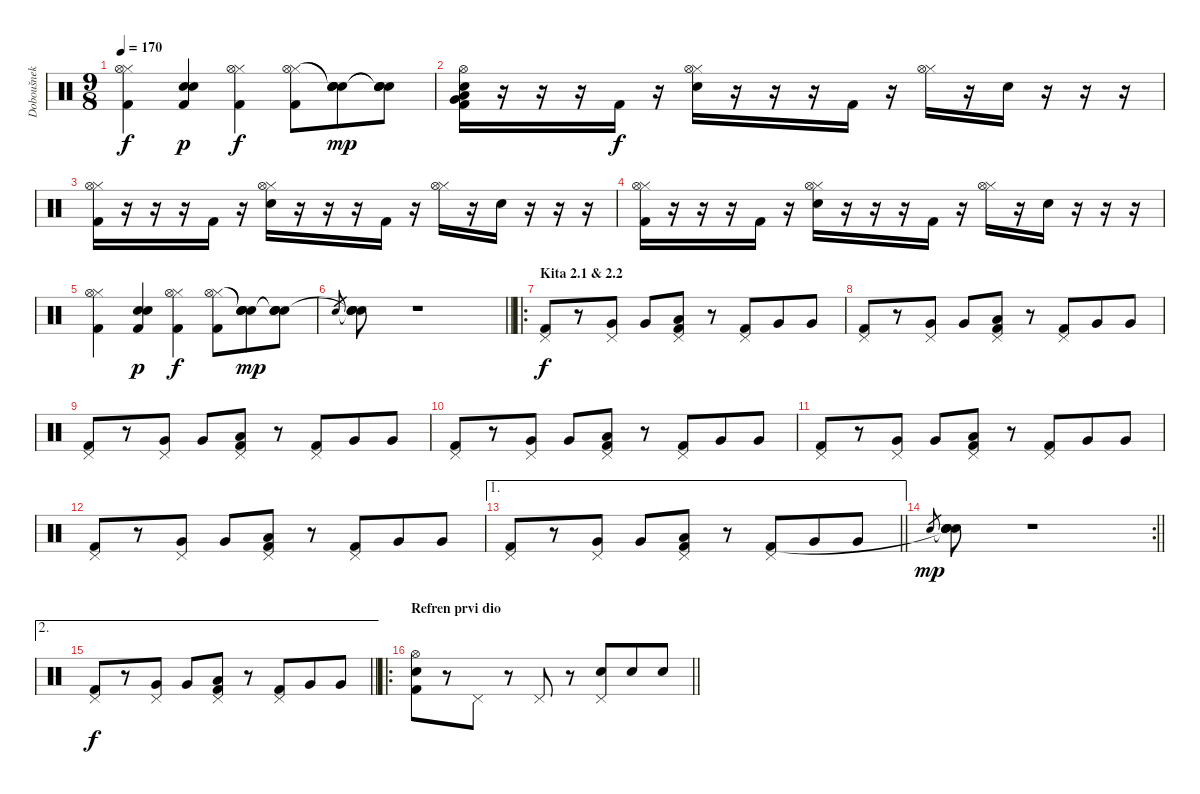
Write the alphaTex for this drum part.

\track ("Doboušnek" "Doboušnek") {instrument percussion}
\staff {score}
\articulation defaults
\ts (9 8)
\tempo 170
\clef neutral
\ks c
("Hi-Hat (closed)" "Hi-Hat (open)" "Kick (hit) 2").4{dy f} ("Snare (hit) 2" "Electric Snare (hit)" "Kick (hit) 2").4{dy p} ("Hi-Hat (closed)" "Hi-Hat (open)" "Kick (hit) 2").4{dy f} ("Hi-Hat (closed)" "Hi-Hat (open)" "Kick (hit) 2").8 ("Snare (hit)"{t} "Snare (hit)"{t} "Electric Snare (hit)" "Snare (hit) 2").8{dy mp} ("Snare (hit)"{t} "Snare (hit)"{t} "Electric Snare (hit)" "Snare (hit) 2").8 |
("Hi-Hat (open)" "Electric Snare (hit)" "Low Floor Tom (hit)" "Very Low Tom (hit)" "Kick (hit) 2").16 r.16 r.16 r.16 "Kick (hit) 2".16{dy f} r.16 ("Hi-Hat (closed)" "Hi-Hat (open)" "Electric Snare (hit)").16 r.16 r.16 r.16 "Kick (hit) 2".16 r.16 ("Hi-Hat (closed)" "Hi-Hat (open)").16 r.16 "Electric Snare (hit)".16 r.16 r.16 r.16 |
("Hi-Hat (closed)" "Hi-Hat (open)" "Kick (hit) 2").16 r.16 r.16 r.16 "Kick (hit) 2".16 r.16 ("Hi-Hat (closed)" "Hi-Hat (open)" "Electric Snare (hit)").16 r.16 r.16 r.16 "Kick (hit) 2".16 r.16 ("Hi-Hat (closed)" "Hi-Hat (open)").16 r.16 "Electric Snare (hit)".16 r.16 r.16 r.16 |
("Hi-Hat (closed)" "Hi-Hat (open)" "Kick (hit) 2").16 r.16 r.16 r.16 "Kick (hit) 2".16 r.16 ("Hi-Hat (closed)" "Hi-Hat (open)" "Electric Snare (hit)").16 r.16 r.16 r.16 "Kick (hit) 2".16 r.16 ("Hi-Hat (closed)" "Hi-Hat (open)").16 r.16 "Electric Snare (hit)".16 r.16 r.16 r.16 |
("Hi-Hat (closed)" "Hi-Hat (open)" "Kick (hit) 2").4 ("Snare (hit) 2" "Electric Snare (hit)" "Kick (hit) 2").4{dy p} ("Hi-Hat (closed)" "Hi-Hat (open)" "Kick (hit) 2").4{dy f} ("Hi-Hat (closed)" "Hi-Hat (open)" "Kick (hit) 2").8 ("Snare (hit)"{t} "Snare (hit)"{t} "Electric Snare (hit)" "Snare (hit) 2").8{dy mp} ("Snare (hit)"{t} "Snare (hit)"{t} "Electric Snare (hit)" "Snare (hit) 2").8 |
\barLineRight lightlight "Electric Snare (hit)".8{gr}
("Snare (hit)"{t} "Snare (hit)"{t} "Electric Snare (hit)" "Snare (hit) 2").8 r.1 |
\ro
\section ("" "Kita 2.1 & 2.2")
("Pedal Hi-Hat (hit)" "Kick (hit) 2").8{dy f} r.8 ("Pedal Hi-Hat (hit)" "Very Low Tom (hit)").8 "Very Low Tom (hit)".8 ("Pedal Hi-Hat (hit)" "Low Tom (hit)" "Kick (hit) 2").8 r.8 ("Pedal Hi-Hat (hit)" "Kick (hit) 2").8 "Very Low Tom (hit)".8 "Very Low Tom (hit)".8 |
("Pedal Hi-Hat (hit)" "Kick (hit) 2").8 r.8 ("Pedal Hi-Hat (hit)" "Very Low Tom (hit)").8 "Very Low Tom (hit)".8 ("Pedal Hi-Hat (hit)" "Low Tom (hit)" "Kick (hit) 2").8 r.8 ("Pedal Hi-Hat (hit)" "Kick (hit) 2").8 "Very Low Tom (hit)".8 "Very Low Tom (hit)".8 |
("Pedal Hi-Hat (hit)" "Kick (hit) 2").8 r.8 ("Pedal Hi-Hat (hit)" "Very Low Tom (hit)").8 "Very Low Tom (hit)".8 ("Pedal Hi-Hat (hit)" "Low Tom (hit)" "Kick (hit) 2").8 r.8 ("Pedal Hi-Hat (hit)" "Kick (hit) 2").8 "Very Low Tom (hit)".8 "Very Low Tom (hit)".8 |
("Pedal Hi-Hat (hit)" "Kick (hit) 2").8 r.8 ("Pedal Hi-Hat (hit)" "Very Low Tom (hit)").8 "Very Low Tom (hit)".8 ("Pedal Hi-Hat (hit)" "Low Tom (hit)" "Kick (hit) 2").8 r.8 ("Pedal Hi-Hat (hit)" "Kick (hit) 2").8 "Very Low Tom (hit)".8 "Very Low Tom (hit)".8 |
("Pedal Hi-Hat (hit)" "Kick (hit) 2").8 r.8 ("Pedal Hi-Hat (hit)" "Very Low Tom (hit)").8 "Very Low Tom (hit)".8 ("Pedal Hi-Hat (hit)" "Low Tom (hit)" "Kick (hit) 2").8 r.8 ("Pedal Hi-Hat (hit)" "Kick (hit) 2").8 "Very Low Tom (hit)".8 "Very Low Tom (hit)".8 |
("Pedal Hi-Hat (hit)" "Kick (hit) 2").8 r.8 ("Pedal Hi-Hat (hit)" "Very Low Tom (hit)").8 "Very Low Tom (hit)".8 ("Pedal Hi-Hat (hit)" "Low Tom (hit)" "Kick (hit) 2").8 r.8 ("Pedal Hi-Hat (hit)" "Kick (hit) 2").8 "Very Low Tom (hit)".8 "Very Low Tom (hit)".8 |
\ae 1
\barLineRight lightlight
("Pedal Hi-Hat (hit)" "Kick (hit) 2").8 r.8 ("Pedal Hi-Hat (hit)" "Very Low Tom (hit)").8 "Very Low Tom (hit)".8 ("Pedal Hi-Hat (hit)" "Low Tom (hit)" "Kick (hit) 2").8 r.8 ("Pedal Hi-Hat (hit)" "Kick (hit) 2").8 "Very Low Tom (hit)".8 "Very Low Tom (hit)".8 |
\rc 2
\barLineRight lightlight "Electric Snare (hit)".8{gr dy mp}
("Snare (hit)"{t} "Snare (hit)"{t} "Electric Snare (hit)" "Snare (hit) 2").8 r.1 |
\ae 2
\barLineRight lightlight
("Pedal Hi-Hat (hit)" "Kick (hit) 2").8{dy f} r.8 ("Pedal Hi-Hat (hit)" "Very Low Tom (hit)").8 "Very Low Tom (hit)".8 ("Pedal Hi-Hat (hit)" "Low Tom (hit)" "Kick (hit) 2").8 r.8 ("Pedal Hi-Hat (hit)" "Kick (hit) 2").8 "Very Low Tom (hit)".8 "Very Low Tom (hit)".8 |
\ro
\section ("" "Refren prvi dio")
\barLineRight lightlight
("Hi-Hat (open)" "Electric Snare (hit)" "Kick (hit) 2").8 r.8 "Pedal Hi-Hat (hit)".8 r.8 "Pedal Hi-Hat (hit)".8 r.8 ("Pedal Hi-Hat (hit)" "Electric Snare (hit)").8 "Electric Snare (hit)".8 "Electric Snare (hit)".8
